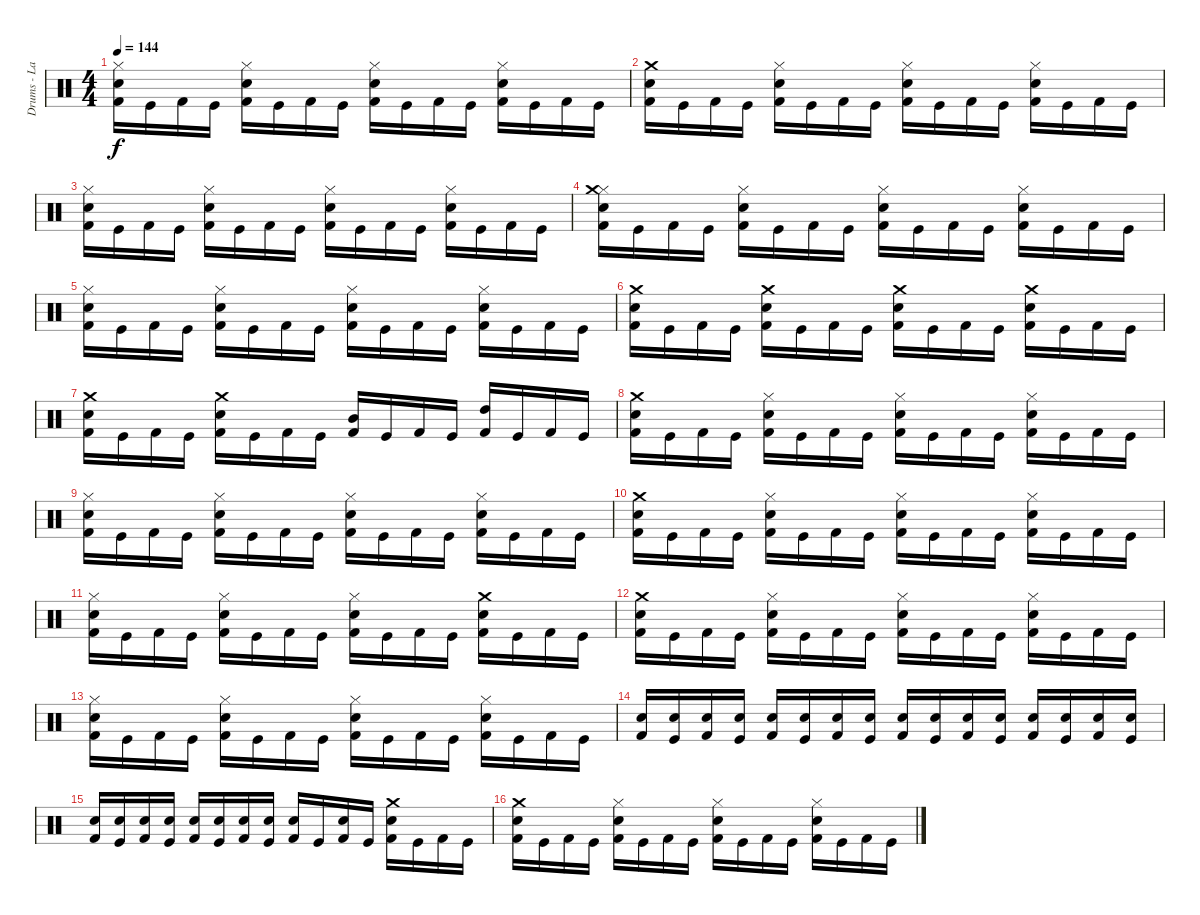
\track ("Drums - Lars" "Drums - La") {instrument percussion}
\staff {score}
\articulation defaults
\ts (4 4)
\tempo 144
\clef neutral
\ks c
("Hi-Hat (closed)" "Snare (hit) 2" "Kick (hit) 2").16{dy f} "Kick (hit)".16 "Kick (hit) 2".16 "Kick (hit)".16 ("Snare (hit) 2" "Hi-Hat (closed)" "Kick (hit) 2").16 "Kick (hit)".16 "Kick (hit) 2".16 "Kick (hit)".16 ("Hi-Hat (closed)" "Snare (hit) 2" "Kick (hit) 2").16 "Kick (hit)".16 "Kick (hit) 2".16 "Kick (hit)".16 ("Snare (hit) 2" "Hi-Hat (closed)" "Kick (hit) 2").16 "Kick (hit)".16 "Kick (hit) 2".16 "Kick (hit)".16 |
("Crash medium (hit)" "Snare (hit) 2" "Kick (hit) 2").16 "Kick (hit)".16 "Kick (hit) 2".16 "Kick (hit)".16 ("Hi-Hat (closed)" "Snare (hit) 2" "Kick (hit) 2").16 "Kick (hit)".16 "Kick (hit) 2".16 "Kick (hit)".16 ("Hi-Hat (closed)" "Snare (hit) 2" "Kick (hit) 2").16 "Kick (hit)".16 "Kick (hit) 2".16 "Kick (hit)".16 ("Hi-Hat (closed)" "Snare (hit) 2" "Kick (hit) 2").16 "Kick (hit)".16 "Kick (hit) 2".16 "Kick (hit)".16 |
("Snare (hit) 2" "Hi-Hat (closed)" "Kick (hit) 2").16 "Kick (hit)".16 "Kick (hit) 2".16 "Kick (hit)".16 ("Snare (hit) 2" "Hi-Hat (closed)" "Kick (hit) 2").16 "Kick (hit)".16 "Kick (hit) 2".16 "Kick (hit)".16 ("Snare (hit) 2" "Hi-Hat (closed)" "Kick (hit) 2").16 "Kick (hit)".16 "Kick (hit) 2".16 "Kick (hit)".16 ("Snare (hit) 2" "Hi-Hat (closed)" "Kick (hit) 2").16 "Kick (hit)".16 "Kick (hit) 2".16 "Kick (hit)".16 |
("Hi-Hat (closed)" "Snare (hit) 2" "Crash medium (hit)" "Kick (hit) 2").16 "Kick (hit)".16 "Kick (hit) 2".16 "Kick (hit)".16 ("Hi-Hat (closed)" "Snare (hit) 2" "Kick (hit) 2").16 "Kick (hit)".16 "Kick (hit) 2".16 "Kick (hit)".16 ("Hi-Hat (closed)" "Snare (hit) 2" "Kick (hit) 2").16 "Kick (hit)".16 "Kick (hit) 2".16 "Kick (hit)".16 ("Hi-Hat (closed)" "Snare (hit) 2" "Kick (hit) 2").16 "Kick (hit)".16 "Kick (hit) 2".16 "Kick (hit)".16 |
("Hi-Hat (closed)" "Snare (hit) 2" "Kick (hit) 2").16 "Kick (hit)".16 "Kick (hit) 2".16 "Kick (hit)".16 ("Hi-Hat (closed)" "Snare (hit) 2" "Kick (hit) 2").16 "Kick (hit)".16 "Kick (hit) 2".16 "Kick (hit)".16 ("Hi-Hat (closed)" "Snare (hit) 2" "Kick (hit) 2").16 "Kick (hit)".16 "Kick (hit) 2".16 "Kick (hit)".16 ("Hi-Hat (closed)" "Snare (hit) 2" "Kick (hit) 2").16 "Kick (hit)".16 "Kick (hit) 2".16 "Kick (hit)".16 |
("Snare (hit) 2" "Crash medium (hit)" "Kick (hit) 2").16 "Kick (hit)".16 "Kick (hit) 2".16 "Kick (hit)".16 ("Snare (hit) 2" "Crash medium (hit)" "Kick (hit) 2").16 "Kick (hit)".16 "Kick (hit) 2".16 "Kick (hit)".16 ("Snare (hit) 2" "Crash medium (hit)" "Kick (hit) 2").16 "Kick (hit)".16 "Kick (hit) 2".16 "Kick (hit)".16 ("Snare (hit) 2" "Crash medium (hit)" "Kick (hit) 2").16 "Kick (hit)".16 "Kick (hit) 2".16 "Kick (hit)".16 |
("Snare (hit) 2" "Crash medium (hit)" "Kick (hit) 2").16 "Kick (hit)".16 "Kick (hit) 2".16 "Kick (hit)".16 ("Snare (hit) 2" "Crash medium (hit)" "Kick (hit) 2").16 "Kick (hit)".16 "Kick (hit) 2".16 "Kick (hit)".16 ("Mid Tom (hit)" "Kick (hit) 2").16 "Kick (hit)".16 "Kick (hit) 2".16 "Kick (hit)".16 ("High Tom (hit)" "Kick (hit) 2").16 "Kick (hit)".16 "Kick (hit) 2".16 "Kick (hit)".16 |
("Crash medium (hit)" "Snare (hit) 2" "Kick (hit) 2").16 "Kick (hit)".16 "Kick (hit) 2".16 "Kick (hit)".16 ("Hi-Hat (closed)" "Snare (hit) 2" "Kick (hit) 2").16 "Kick (hit)".16 "Kick (hit) 2".16 "Kick (hit)".16 ("Hi-Hat (closed)" "Snare (hit) 2" "Kick (hit) 2").16 "Kick (hit)".16 "Kick (hit) 2".16 "Kick (hit)".16 ("Hi-Hat (closed)" "Snare (hit) 2" "Kick (hit) 2").16 "Kick (hit)".16 "Kick (hit) 2".16 "Kick (hit)".16 |
("Hi-Hat (closed)" "Snare (hit) 2" "Kick (hit) 2").16 "Kick (hit)".16 "Kick (hit) 2".16 "Kick (hit)".16 ("Hi-Hat (closed)" "Snare (hit) 2" "Kick (hit) 2").16 "Kick (hit)".16 "Kick (hit) 2".16 "Kick (hit)".16 ("Hi-Hat (closed)" "Snare (hit) 2" "Kick (hit) 2").16 "Kick (hit)".16 "Kick (hit) 2".16 "Kick (hit)".16 ("Hi-Hat (closed)" "Snare (hit) 2" "Kick (hit) 2").16 "Kick (hit)".16 "Kick (hit) 2".16 "Kick (hit)".16 |
("Snare (hit) 2" "Crash medium (hit)" "Kick (hit) 2").16 "Kick (hit)".16 "Kick (hit) 2".16 "Kick (hit)".16 ("Hi-Hat (closed)" "Snare (hit) 2" "Kick (hit) 2").16 "Kick (hit)".16 "Kick (hit) 2".16 "Kick (hit)".16 ("Hi-Hat (closed)" "Snare (hit) 2" "Kick (hit) 2").16 "Kick (hit)".16 "Kick (hit) 2".16 "Kick (hit)".16 ("Hi-Hat (closed)" "Snare (hit) 2" "Kick (hit) 2").16 "Kick (hit)".16 "Kick (hit) 2".16 "Kick (hit)".16 |
("Snare (hit) 2" "Hi-Hat (closed)" "Kick (hit) 2").16 "Kick (hit)".16 "Kick (hit) 2".16 "Kick (hit)".16 ("Snare (hit) 2" "Hi-Hat (closed)" "Kick (hit) 2").16 "Kick (hit)".16 "Kick (hit) 2".16 "Kick (hit)".16 ("Snare (hit) 2" "Hi-Hat (closed)" "Kick (hit) 2").16 "Kick (hit)".16 "Kick (hit) 2".16 "Kick (hit)".16 ("Crash medium (hit)" "Snare (hit) 2" "Kick (hit) 2").16 "Kick (hit)".16 "Kick (hit) 2".16 "Kick (hit)".16 |
("Snare (hit) 2" "Crash medium (hit)" "Kick (hit) 2").16 "Kick (hit)".16 "Kick (hit) 2".16 "Kick (hit)".16 ("Hi-Hat (closed)" "Snare (hit) 2" "Kick (hit) 2").16 "Kick (hit)".16 "Kick (hit) 2".16 "Kick (hit)".16 ("Hi-Hat (closed)" "Snare (hit) 2" "Kick (hit) 2").16 "Kick (hit)".16 "Kick (hit) 2".16 "Kick (hit)".16 ("Hi-Hat (closed)" "Snare (hit) 2" "Kick (hit) 2").16 "Kick (hit)".16 "Kick (hit) 2".16 "Kick (hit)".16 |
("Snare (hit) 2" "Hi-Hat (closed)" "Kick (hit) 2").16 "Kick (hit)".16 "Kick (hit) 2".16 "Kick (hit)".16 ("Snare (hit) 2" "Hi-Hat (closed)" "Kick (hit) 2").16 "Kick (hit)".16 "Kick (hit) 2".16 "Kick (hit)".16 ("Snare (hit) 2" "Hi-Hat (closed)" "Kick (hit) 2").16 "Kick (hit)".16 "Kick (hit) 2".16 "Kick (hit)".16 ("Snare (hit) 2" "Hi-Hat (closed)" "Kick (hit) 2").16 "Kick (hit)".16 "Kick (hit) 2".16 "Kick (hit)".16 |
("Snare (hit) 2" "Kick (hit) 2").16 ("Snare (hit) 2" "Kick (hit)").16 ("Snare (hit) 2" "Kick (hit) 2").16 ("Snare (hit) 2" "Kick (hit)").16 ("Snare (hit) 2" "Kick (hit) 2").16 ("Snare (hit) 2" "Kick (hit)").16 ("Snare (hit) 2" "Kick (hit) 2").16 ("Snare (hit) 2" "Kick (hit)").16 ("Snare (hit) 2" "Kick (hit) 2").16 ("Snare (hit) 2" "Kick (hit)").16 ("Snare (hit) 2" "Kick (hit) 2").16 ("Snare (hit) 2" "Kick (hit)").16 ("Snare (hit) 2" "Kick (hit) 2").16 ("Snare (hit) 2" "Kick (hit)").16 ("Snare (hit) 2" "Kick (hit) 2").16 ("Snare (hit) 2" "Kick (hit)").16 |
("Snare (hit) 2" "Kick (hit) 2").16 ("Snare (hit) 2" "Kick (hit)").16 ("Snare (hit) 2" "Kick (hit) 2").16 ("Snare (hit) 2" "Kick (hit)").16 ("Snare (hit) 2" "Kick (hit) 2").16 ("Snare (hit) 2" "Kick (hit)").16 ("Snare (hit) 2" "Kick (hit) 2").16 ("Snare (hit) 2" "Kick (hit)").16 ("Snare (hit) 2" "Kick (hit) 2").16 "Kick (hit)".16 ("Snare (hit) 2" "Kick (hit) 2").16 "Kick (hit)".16 ("Crash medium (hit)" "Snare (hit) 2" "Kick (hit) 2").16 "Kick (hit)".16 "Kick (hit) 2".16 "Kick (hit)".16 |
("Snare (hit) 2" "Crash medium (hit)" "Kick (hit) 2").16 "Kick (hit)".16 "Kick (hit) 2".16 "Kick (hit)".16 ("Hi-Hat (closed)" "Snare (hit) 2" "Kick (hit) 2").16 "Kick (hit)".16 "Kick (hit) 2".16 "Kick (hit)".16 ("Hi-Hat (closed)" "Snare (hit) 2" "Kick (hit) 2").16 "Kick (hit)".16 "Kick (hit) 2".16 "Kick (hit)".16 ("Hi-Hat (closed)" "Snare (hit) 2" "Kick (hit) 2").16 "Kick (hit)".16 "Kick (hit) 2".16 "Kick (hit)".16
